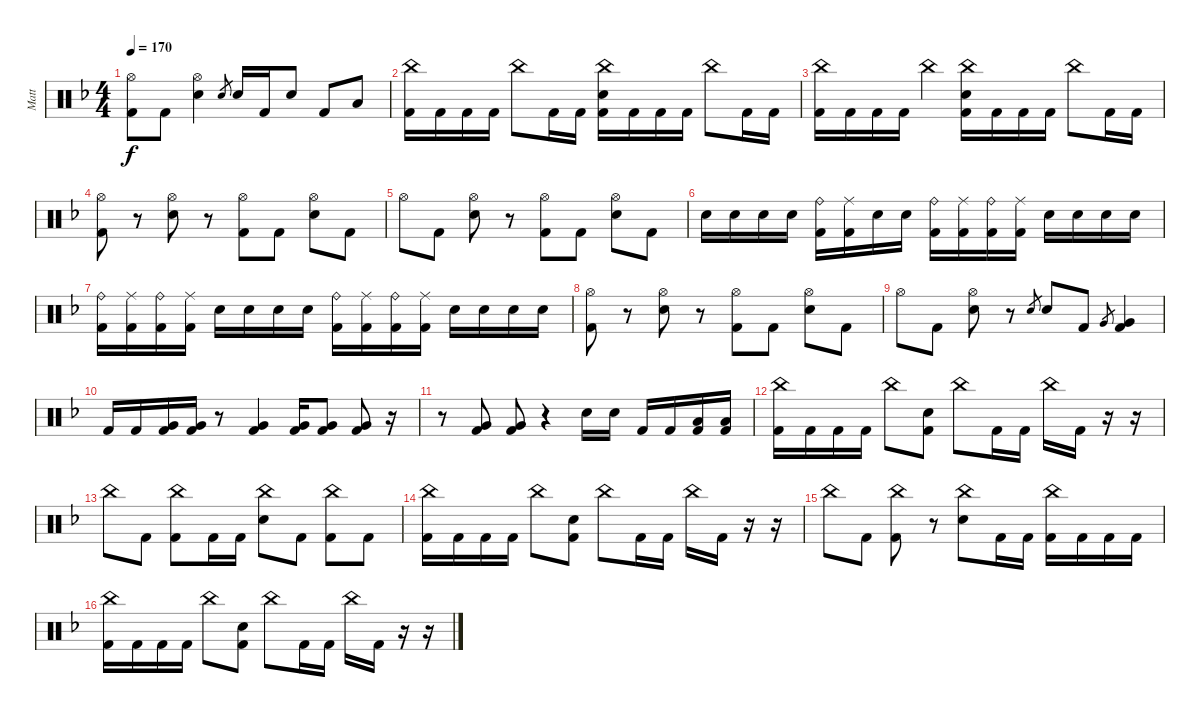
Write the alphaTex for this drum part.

\track ("Matt" "Matt") {instrument percussion}
\staff {score}
\articulation defaults
\ts (4 4)
\tempo 170
\clef neutral
\ks f
("Hi-Hat (open)" "Kick (hit) 2").8{dy f} "Kick (hit) 2".8 ("Hi-Hat (open)" "Electric Snare (hit)").4 "Electric Snare (hit)".8{gr} "Electric Snare (hit)".16 "Kick (hit) 2".16 "Electric Snare (hit)".8 "Kick (hit) 2".8 "Low Tom (hit)".8 |
("China (hit)" "Kick (hit) 2").16 "Kick (hit) 2".16 "Kick (hit) 2".16 "Kick (hit) 2".16 "China (hit)".8 "Kick (hit) 2".16 "Kick (hit) 2".16 ("China (hit)" "Electric Snare (hit)" "Kick (hit) 2").16 "Kick (hit) 2".16 "Kick (hit) 2".16 "Kick (hit) 2".16 "China (hit)".8 "Kick (hit) 2".16 "Kick (hit) 2".16 |
("China (hit)" "Kick (hit) 2").16 "Kick (hit) 2".16 "Kick (hit) 2".16 "Kick (hit) 2".16 "China (hit)".4 ("China (hit)" "Electric Snare (hit)" "Kick (hit) 2").16 "Kick (hit) 2".16 "Kick (hit) 2".16 "Kick (hit) 2".16 "China (hit)".8 "Kick (hit) 2".16 "Kick (hit) 2".16 |
("Hi-Hat (open)" "Kick (hit) 2").8 r.8 ("Hi-Hat (open)" "Electric Snare (hit)").8 r.8 ("Hi-Hat (open)" "Kick (hit) 2").8 "Kick (hit) 2".8 ("Hi-Hat (open)" "Electric Snare (hit)").8 "Kick (hit) 2".8 |
"Hi-Hat (open)".8 "Kick (hit) 2".8 ("Hi-Hat (open)" "Electric Snare (hit)").8 r.8 ("Hi-Hat (open)" "Kick (hit) 2").8 "Kick (hit) 2".8 ("Hi-Hat (open)" "Electric Snare (hit)").8 "Kick (hit) 2".8 |
"Electric Snare (hit)".16 "Electric Snare (hit)".16 "Electric Snare (hit)".16 "Electric Snare (hit)".16 ("Ride (bell)" "Kick (hit) 2").16 ("Ride (middle)" "Kick (hit) 2").16 "Electric Snare (hit)".16 "Electric Snare (hit)".16 ("Ride (bell)" "Kick (hit) 2").16 ("Ride (middle)" "Kick (hit) 2").16 ("Ride (bell)" "Kick (hit) 2").16 ("Ride (middle)" "Kick (hit) 2").16 "Electric Snare (hit)".16 "Electric Snare (hit)".16 "Electric Snare (hit)".16 "Electric Snare (hit)".16 |
("Ride (bell)" "Kick (hit) 2").16 ("Ride (middle)" "Kick (hit) 2").16 ("Ride (bell)" "Kick (hit) 2").16 ("Ride (middle)" "Kick (hit) 2").16 "Electric Snare (hit)".16 "Electric Snare (hit)".16 "Electric Snare (hit)".16 "Electric Snare (hit)".16 ("Ride (bell)" "Kick (hit) 2").16 ("Ride (middle)" "Kick (hit) 2").16 ("Ride (bell)" "Kick (hit) 2").16 ("Ride (middle)" "Kick (hit) 2").16 "Electric Snare (hit)".16 "Electric Snare (hit)".16 "Electric Snare (hit)".16 "Electric Snare (hit)".16 |
("Hi-Hat (open)" "Kick (hit) 2").8 r.8 ("Hi-Hat (open)" "Electric Snare (hit)").8 r.8 ("Hi-Hat (open)" "Kick (hit) 2").8 "Kick (hit) 2".8 ("Hi-Hat (open)" "Electric Snare (hit)").8 "Kick (hit) 2".8 |
"Hi-Hat (open)".8 "Kick (hit) 2".8 ("Hi-Hat (open)" "Electric Snare (hit)").8 r.8 "Electric Snare (hit)".8{gr} "Electric Snare (hit)".8 "Kick (hit) 2".8 "Very Low Tom (hit)".8{gr} ("Very Low Tom (hit)" "Kick (hit) 2").4 |
"Kick (hit) 2".16 "Kick (hit) 2".16 ("Very Low Tom (hit)" "Kick (hit) 2").16 ("Very Low Tom (hit)" "Kick (hit) 2").16 r.8 ("Very Low Tom (hit)" "Kick (hit) 2").4 ("Very Low Tom (hit)" "Kick (hit) 2").16 ("Very Low Tom (hit)" "Kick (hit) 2").8 ("Very Low Tom (hit)" "Kick (hit) 2").8 r.16 |
r.8 ("Very Low Tom (hit)" "Kick (hit) 2").8 ("Very Low Tom (hit)" "Kick (hit) 2").8 r.4 "Electric Snare (hit)".16 "Electric Snare (hit)".16 "Kick (hit) 2".16 "Kick (hit) 2".16 ("Low Tom (hit)" "Kick (hit) 2").16 ("Low Tom (hit)" "Kick (hit) 2").16 |
("China (hit)" "Kick (hit) 2").16 "Kick (hit) 2".16 "Kick (hit) 2".16 "Kick (hit) 2".16 "China (hit)".8 ("Electric Snare (hit)" "Kick (hit) 2").8 "China (hit)".8 "Kick (hit) 2".16 "Kick (hit) 2".16 "China (hit)".16 "Kick (hit) 2".16 r.16 r.16 |
"China (hit)".8 "Kick (hit) 2".8 ("China (hit)" "Kick (hit) 2").8 "Kick (hit) 2".16 "Kick (hit) 2".16 ("China (hit)" "Electric Snare (hit)").8 "Kick (hit) 2".8 ("China (hit)" "Kick (hit) 2").8 "Kick (hit) 2".8 |
("China (hit)" "Kick (hit) 2").16 "Kick (hit) 2".16 "Kick (hit) 2".16 "Kick (hit) 2".16 "China (hit)".8 ("Electric Snare (hit)" "Kick (hit) 2").8 "China (hit)".8 "Kick (hit) 2".16 "Kick (hit) 2".16 "China (hit)".16 "Kick (hit) 2".16 r.16 r.16 |
"China (hit)".8 "Kick (hit) 2".8 ("China (hit)" "Kick (hit) 2").8 r.8 ("China (hit)" "Electric Snare (hit)").8 "Kick (hit) 2".16 "Kick (hit) 2".16 ("China (hit)" "Kick (hit) 2").16 "Kick (hit) 2".16 "Kick (hit) 2".16 "Kick (hit) 2".16 |
("China (hit)" "Kick (hit) 2").16 "Kick (hit) 2".16 "Kick (hit) 2".16 "Kick (hit) 2".16 "China (hit)".8 ("Electric Snare (hit)" "Kick (hit) 2").8 "China (hit)".8 "Kick (hit) 2".16 "Kick (hit) 2".16 "China (hit)".16 "Kick (hit) 2".16 r.16 r.16
